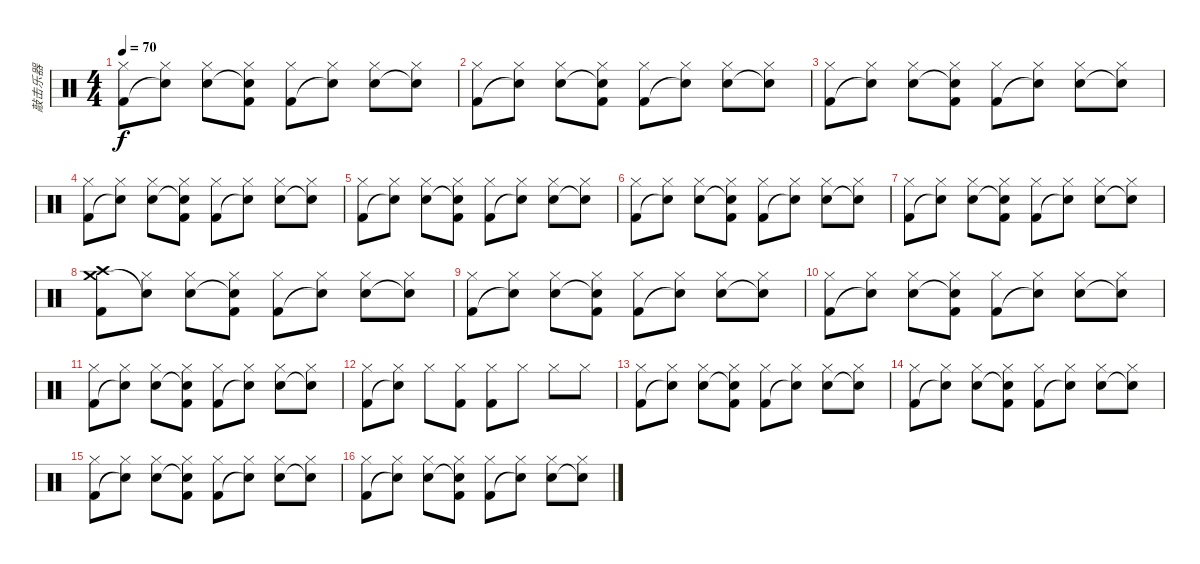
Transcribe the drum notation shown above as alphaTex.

\track ("敲击乐器" "敲击乐器") {instrument percussion}
\staff {score}
\articulation defaults
\ts (4 4)
\tempo 70
\clef neutral
\ks c
("Hi-Hat (closed)" "Kick (hit) 2").8{dy f} ("Hi-Hat (closed)" "Snare (hit)"{t}).8 ("Hi-Hat (closed)" "Snare (hit) 2").8 ("Hi-Hat (closed)" "Snare (hit)"{t} "Kick (hit) 2").8 ("Hi-Hat (closed)" "Kick (hit) 2").8 ("Hi-Hat (closed)" "Snare (hit)"{t}).8 ("Hi-Hat (closed)" "Snare (hit) 2").8 ("Hi-Hat (closed)" "Snare (hit)"{t}).8 |
("Hi-Hat (closed)" "Kick (hit) 2").8 ("Hi-Hat (closed)" "Snare (hit)"{t}).8 ("Hi-Hat (closed)" "Snare (hit) 2").8 ("Hi-Hat (closed)" "Snare (hit)"{t} "Kick (hit) 2").8 ("Hi-Hat (closed)" "Kick (hit) 2").8 ("Hi-Hat (closed)" "Snare (hit)"{t}).8 ("Hi-Hat (closed)" "Snare (hit) 2").8 ("Hi-Hat (closed)" "Snare (hit)"{t}).8 |
("Hi-Hat (closed)" "Kick (hit) 2").8 ("Hi-Hat (closed)" "Snare (hit)"{t}).8 ("Hi-Hat (closed)" "Snare (hit) 2").8 ("Hi-Hat (closed)" "Snare (hit)"{t} "Kick (hit) 2").8 ("Hi-Hat (closed)" "Kick (hit) 2").8 ("Hi-Hat (closed)" "Snare (hit)"{t}).8 ("Hi-Hat (closed)" "Snare (hit) 2").8 ("Hi-Hat (closed)" "Snare (hit)"{t}).8 |
("Hi-Hat (closed)" "Kick (hit) 2").8 ("Hi-Hat (closed)" "Snare (hit)"{t}).8 ("Hi-Hat (closed)" "Snare (hit) 2").8 ("Hi-Hat (closed)" "Snare (hit)"{t} "Kick (hit) 2").8 ("Hi-Hat (closed)" "Kick (hit) 2").8 ("Hi-Hat (closed)" "Snare (hit)"{t}).8 ("Hi-Hat (closed)" "Snare (hit) 2").8 ("Hi-Hat (closed)" "Snare (hit)"{t}).8 |
("Hi-Hat (closed)" "Kick (hit) 2").8 ("Hi-Hat (closed)" "Snare (hit)"{t}).8 ("Hi-Hat (closed)" "Snare (hit) 2").8 ("Hi-Hat (closed)" "Snare (hit)"{t} "Kick (hit) 2").8 ("Hi-Hat (closed)" "Kick (hit) 2").8 ("Hi-Hat (closed)" "Snare (hit)"{t}).8 ("Hi-Hat (closed)" "Snare (hit) 2").8 ("Hi-Hat (closed)" "Snare (hit)"{t}).8 |
("Hi-Hat (closed)" "Kick (hit) 2").8 ("Hi-Hat (closed)" "Snare (hit)"{t}).8 ("Hi-Hat (closed)" "Snare (hit) 2").8 ("Hi-Hat (closed)" "Snare (hit)"{t} "Kick (hit) 2").8 ("Hi-Hat (closed)" "Kick (hit) 2").8 ("Hi-Hat (closed)" "Snare (hit)"{t}).8 ("Hi-Hat (closed)" "Snare (hit) 2").8 ("Hi-Hat (closed)" "Snare (hit)"{t}).8 |
("Hi-Hat (closed)" "Kick (hit) 2").8 ("Hi-Hat (closed)" "Snare (hit)"{t}).8 ("Hi-Hat (closed)" "Snare (hit) 2").8 ("Hi-Hat (closed)" "Snare (hit)"{t} "Kick (hit) 2").8 ("Hi-Hat (closed)" "Kick (hit) 2").8 ("Hi-Hat (closed)" "Snare (hit)"{t}).8 ("Hi-Hat (closed)" "Snare (hit) 2").8 ("Hi-Hat (closed)" "Snare (hit)"{t}).8 |
("Crash high (hit)" "Crash medium (hit)" "Kick (hit) 2").8 ("Hi-Hat (closed)" "Snare (hit)"{t}).8 ("Hi-Hat (closed)" "Snare (hit) 2").8 ("Hi-Hat (closed)" "Snare (hit)"{t} "Kick (hit) 2").8 ("Hi-Hat (closed)" "Kick (hit) 2").8 ("Hi-Hat (closed)" "Snare (hit)"{t}).8 ("Hi-Hat (closed)" "Snare (hit) 2").8 ("Hi-Hat (closed)" "Snare (hit)"{t}).8 |
("Hi-Hat (closed)" "Kick (hit) 2").8 ("Hi-Hat (closed)" "Snare (hit)"{t}).8 ("Hi-Hat (closed)" "Snare (hit) 2").8 ("Hi-Hat (closed)" "Snare (hit)"{t} "Kick (hit) 2").8 ("Hi-Hat (closed)" "Kick (hit) 2").8 ("Hi-Hat (closed)" "Snare (hit)"{t}).8 ("Hi-Hat (closed)" "Snare (hit) 2").8 ("Hi-Hat (closed)" "Snare (hit)"{t}).8 |
("Hi-Hat (closed)" "Kick (hit) 2").8 ("Hi-Hat (closed)" "Snare (hit)"{t}).8 ("Hi-Hat (closed)" "Snare (hit) 2").8 ("Hi-Hat (closed)" "Snare (hit)"{t} "Kick (hit) 2").8 ("Hi-Hat (closed)" "Kick (hit) 2").8 ("Hi-Hat (closed)" "Snare (hit)"{t}).8 ("Hi-Hat (closed)" "Snare (hit) 2").8 ("Hi-Hat (closed)" "Snare (hit)"{t}).8 |
("Hi-Hat (closed)" "Kick (hit) 2").8 ("Hi-Hat (closed)" "Snare (hit)"{t}).8 ("Hi-Hat (closed)" "Snare (hit) 2").8 ("Hi-Hat (closed)" "Snare (hit)"{t} "Kick (hit) 2").8 ("Hi-Hat (closed)" "Kick (hit) 2").8 ("Hi-Hat (closed)" "Snare (hit)"{t}).8 ("Hi-Hat (closed)" "Snare (hit) 2").8 ("Hi-Hat (closed)" "Snare (hit)"{t}).8 |
("Hi-Hat (closed)" "Kick (hit) 2").8 ("Hi-Hat (closed)" "Snare (hit)"{t}).8 "Hi-Hat (closed)".8 ("Hi-Hat (closed)" "Kick (hit) 2").8 ("Hi-Hat (closed)" "Kick (hit) 2").8 "Hi-Hat (closed)".8 "Hi-Hat (closed)".8 "Hi-Hat (closed)".8 |
("Hi-Hat (closed)" "Kick (hit) 2").8 ("Hi-Hat (closed)" "Snare (hit)"{t}).8 ("Hi-Hat (closed)" "Snare (hit) 2").8 ("Hi-Hat (closed)" "Snare (hit)"{t} "Kick (hit) 2").8 ("Hi-Hat (closed)" "Kick (hit) 2").8 ("Hi-Hat (closed)" "Snare (hit)"{t}).8 ("Hi-Hat (closed)" "Snare (hit) 2").8 ("Hi-Hat (closed)" "Snare (hit)"{t}).8 |
("Hi-Hat (closed)" "Kick (hit) 2").8 ("Hi-Hat (closed)" "Snare (hit)"{t}).8 ("Hi-Hat (closed)" "Snare (hit) 2").8 ("Hi-Hat (closed)" "Snare (hit)"{t} "Kick (hit) 2").8 ("Hi-Hat (closed)" "Kick (hit) 2").8 ("Hi-Hat (closed)" "Snare (hit)"{t}).8 ("Hi-Hat (closed)" "Snare (hit) 2").8 ("Hi-Hat (closed)" "Snare (hit)"{t}).8 |
("Hi-Hat (closed)" "Kick (hit) 2").8 ("Hi-Hat (closed)" "Snare (hit)"{t}).8 ("Hi-Hat (closed)" "Snare (hit) 2").8 ("Hi-Hat (closed)" "Snare (hit)"{t} "Kick (hit) 2").8 ("Hi-Hat (closed)" "Kick (hit) 2").8 ("Hi-Hat (closed)" "Snare (hit)"{t}).8 ("Hi-Hat (closed)" "Snare (hit) 2").8 ("Hi-Hat (closed)" "Snare (hit)"{t}).8 |
("Hi-Hat (closed)" "Kick (hit) 2").8 ("Hi-Hat (closed)" "Snare (hit)"{t}).8 ("Hi-Hat (closed)" "Snare (hit) 2").8 ("Hi-Hat (closed)" "Snare (hit)"{t} "Kick (hit) 2").8 ("Hi-Hat (closed)" "Kick (hit) 2").8 ("Hi-Hat (closed)" "Snare (hit)"{t}).8 ("Hi-Hat (closed)" "Snare (hit) 2").8 ("Hi-Hat (closed)" "Snare (hit)"{t}).8
